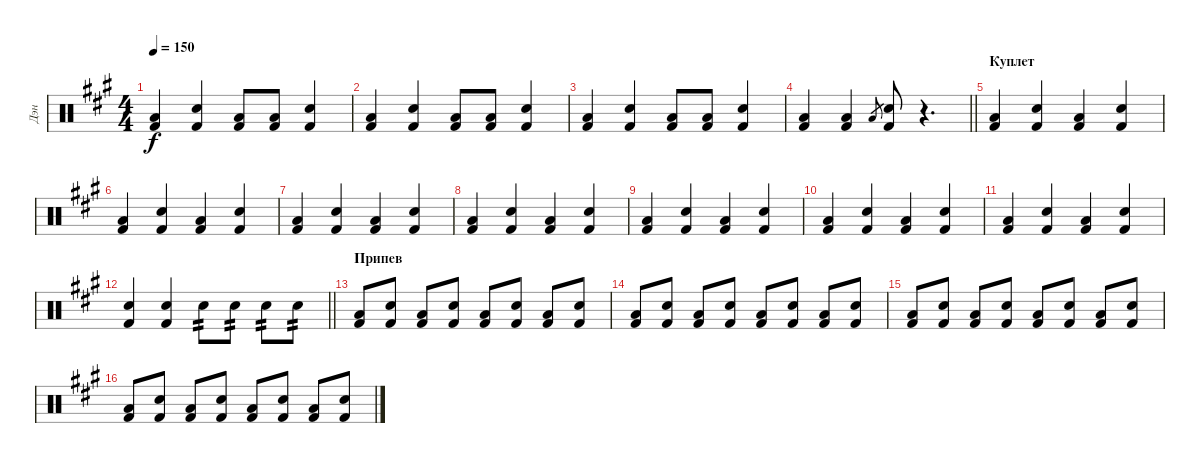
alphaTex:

\track ("Дэн" "Дэн") {instrument percussion}
\staff {score}
\articulation defaults
\ts (4 4)
\tempo 150
\clef neutral
\ks f#minor
("Low Tom (hit)" "Kick (hit) 2").4{dy f} ("Snare (hit) 2" "Kick (hit) 2").4 ("Low Tom (hit)" "Kick (hit) 2").8 ("Low Tom (hit)" "Kick (hit) 2").8 ("Snare (hit) 2" "Kick (hit) 2").4 |
("Low Tom (hit)" "Kick (hit) 2").4 ("Snare (hit) 2" "Kick (hit) 2").4 ("Low Tom (hit)" "Kick (hit) 2").8 ("Low Tom (hit)" "Kick (hit) 2").8 ("Snare (hit) 2" "Kick (hit) 2").4 |
("Low Tom (hit)" "Kick (hit) 2").4 ("Snare (hit) 2" "Kick (hit) 2").4 ("Low Tom (hit)" "Kick (hit) 2").8 ("Low Tom (hit)" "Kick (hit) 2").8 ("Snare (hit) 2" "Kick (hit) 2").4 |
\barLineRight lightlight
("Low Tom (hit)" "Kick (hit) 2").4 ("Low Tom (hit)" "Kick (hit) 2").4 "Low Tom (hit)".8{gr} ("Snare (hit) 2" "Kick (hit) 2").8 r.4{d} |
\section ("" "Куплет")
("Low Tom (hit)" "Kick (hit) 2").4 ("Snare (hit) 2" "Kick (hit) 2").4 ("Low Tom (hit)" "Kick (hit) 2").4 ("Snare (hit) 2" "Kick (hit) 2").4 |
("Low Tom (hit)" "Kick (hit) 2").4 ("Snare (hit) 2" "Kick (hit) 2").4 ("Low Tom (hit)" "Kick (hit) 2").4 ("Snare (hit) 2" "Kick (hit) 2").4 |
("Low Tom (hit)" "Kick (hit) 2").4 ("Snare (hit) 2" "Kick (hit) 2").4 ("Low Tom (hit)" "Kick (hit) 2").4 ("Snare (hit) 2" "Kick (hit) 2").4 |
("Low Tom (hit)" "Kick (hit) 2").4 ("Snare (hit) 2" "Kick (hit) 2").4 ("Low Tom (hit)" "Kick (hit) 2").4 ("Snare (hit) 2" "Kick (hit) 2").4 |
("Low Tom (hit)" "Kick (hit) 2").4 ("Snare (hit) 2" "Kick (hit) 2").4 ("Low Tom (hit)" "Kick (hit) 2").4 ("Snare (hit) 2" "Kick (hit) 2").4 |
("Low Tom (hit)" "Kick (hit) 2").4 ("Snare (hit) 2" "Kick (hit) 2").4 ("Low Tom (hit)" "Kick (hit) 2").4 ("Snare (hit) 2" "Kick (hit) 2").4 |
("Low Tom (hit)" "Kick (hit) 2").4 ("Snare (hit) 2" "Kick (hit) 2").4 ("Low Tom (hit)" "Kick (hit) 2").4 ("Snare (hit) 2" "Kick (hit) 2").4 |
\barLineRight lightlight
("Snare (hit) 2" "Kick (hit) 2").4 ("Snare (hit) 2" "Kick (hit) 2").4 "Snare (hit) 2".8{tp 2} "Snare (hit) 2".8{tp 2} "Snare (hit) 2".8{tp 2} "Snare (hit) 2".8{tp 2} |
\section ("" "Припев")
("Low Tom (hit)" "Kick (hit) 2").8 ("Snare (hit) 2" "Kick (hit) 2").8 ("Low Tom (hit)" "Kick (hit) 2").8 ("Snare (hit) 2" "Kick (hit) 2").8 ("Low Tom (hit)" "Kick (hit) 2").8 ("Snare (hit) 2" "Kick (hit) 2").8 ("Low Tom (hit)" "Kick (hit) 2").8 ("Snare (hit) 2" "Kick (hit) 2").8 |
("Low Tom (hit)" "Kick (hit) 2").8 ("Snare (hit) 2" "Kick (hit) 2").8 ("Low Tom (hit)" "Kick (hit) 2").8 ("Snare (hit) 2" "Kick (hit) 2").8 ("Low Tom (hit)" "Kick (hit) 2").8 ("Snare (hit) 2" "Kick (hit) 2").8 ("Low Tom (hit)" "Kick (hit) 2").8 ("Snare (hit) 2" "Kick (hit) 2").8 |
("Low Tom (hit)" "Kick (hit) 2").8 ("Snare (hit) 2" "Kick (hit) 2").8 ("Low Tom (hit)" "Kick (hit) 2").8 ("Snare (hit) 2" "Kick (hit) 2").8 ("Low Tom (hit)" "Kick (hit) 2").8 ("Snare (hit) 2" "Kick (hit) 2").8 ("Low Tom (hit)" "Kick (hit) 2").8 ("Snare (hit) 2" "Kick (hit) 2").8 |
("Low Tom (hit)" "Kick (hit) 2").8 ("Snare (hit) 2" "Kick (hit) 2").8 ("Low Tom (hit)" "Kick (hit) 2").8 ("Snare (hit) 2" "Kick (hit) 2").8 ("Low Tom (hit)" "Kick (hit) 2").8 ("Snare (hit) 2" "Kick (hit) 2").8 ("Low Tom (hit)" "Kick (hit) 2").8 ("Snare (hit) 2" "Kick (hit) 2").8
